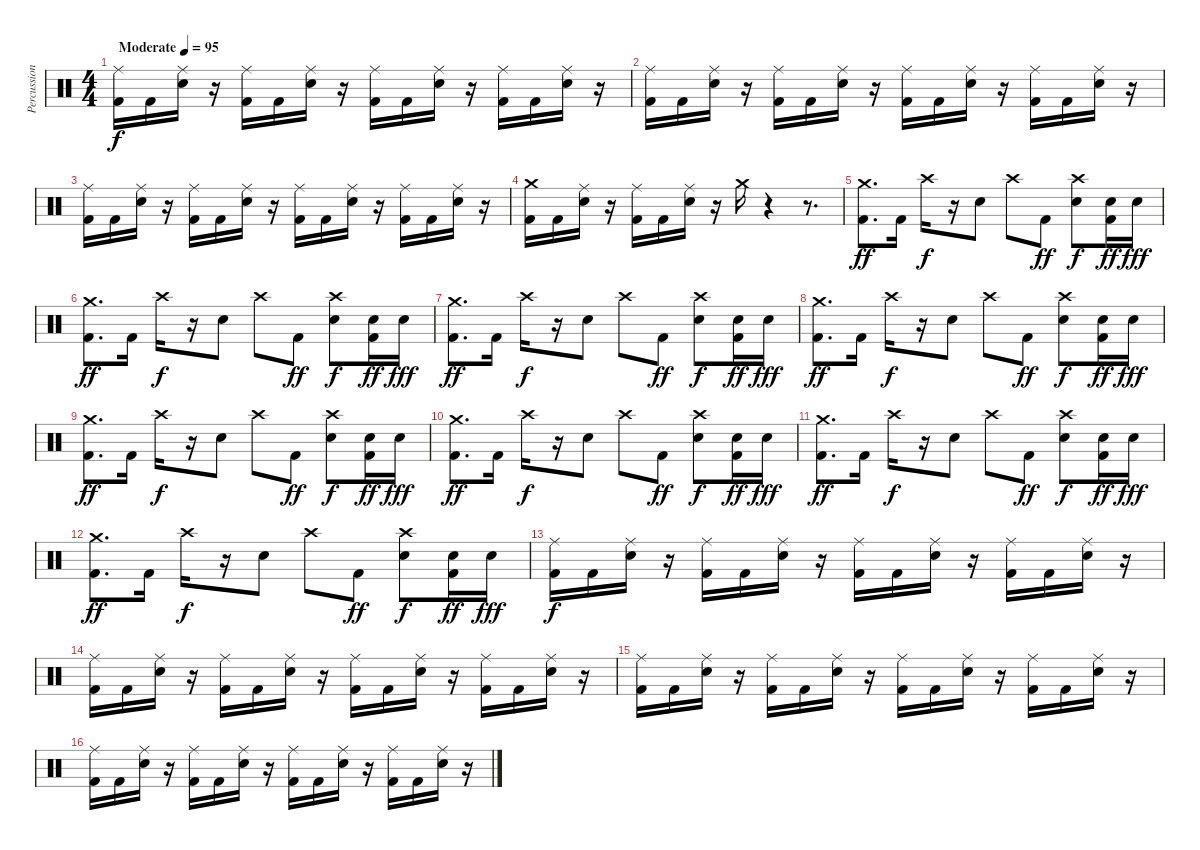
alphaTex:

\track ("Percussion" "Percussion") {instrument percussion}
\staff {score}
\articulation defaults
\ts (4 4)
\tempo (95 "Moderate")
\clef neutral
\ks c
("Ride (middle)" "Kick (hit) 2").16{dy f} "Kick (hit) 2".16 ("Ride (middle)" "Electric Snare (hit)").16 r.16 ("Ride (middle)" "Kick (hit) 2").16 "Kick (hit) 2".16 ("Ride (middle)" "Electric Snare (hit)").16 r.16 ("Ride (middle)" "Kick (hit) 2").16 "Kick (hit) 2".16 ("Ride (middle)" "Electric Snare (hit)").16 r.16 ("Ride (middle)" "Kick (hit) 2").16 "Kick (hit) 2".16 ("Ride (middle)" "Electric Snare (hit)").16 r.16 |
("Ride (middle)" "Kick (hit) 2").16 "Kick (hit) 2".16 ("Ride (middle)" "Electric Snare (hit)").16 r.16 ("Ride (middle)" "Kick (hit) 2").16 "Kick (hit) 2".16 ("Ride (middle)" "Electric Snare (hit)").16 r.16 ("Ride (middle)" "Kick (hit) 2").16 "Kick (hit) 2".16 ("Ride (middle)" "Electric Snare (hit)").16 r.16 ("Ride (middle)" "Kick (hit) 2").16 "Kick (hit) 2".16 ("Ride (middle)" "Electric Snare (hit)").16 r.16 |
("Ride (middle)" "Kick (hit) 2").16 "Kick (hit) 2".16 ("Ride (middle)" "Electric Snare (hit)").16 r.16 ("Ride (middle)" "Kick (hit) 2").16 "Kick (hit) 2".16 ("Ride (middle)" "Electric Snare (hit)").16 r.16 ("Ride (middle)" "Kick (hit) 2").16 "Kick (hit) 2".16 ("Ride (middle)" "Electric Snare (hit)").16 r.16 ("Ride (middle)" "Kick (hit) 2").16 "Kick (hit) 2".16 ("Ride (middle)" "Electric Snare (hit)").16 r.16 |
("Crash medium (hit)" "Kick (hit) 2").16 "Kick (hit) 2".16 ("Ride (middle)" "Electric Snare (hit)").16 r.16 ("Ride (middle)" "Kick (hit) 2").16 "Kick (hit) 2".16 ("Ride (middle)" "Electric Snare (hit)").16 r.16 "Crash medium (hit)".16 r.4 r.8{d} |
("Crash medium (hit)" "Kick (hit) 2").8{d dy ff} "Kick (hit) 2".16 "Crash high (hit)".16{dy f} r.16 "Electric Snare (hit)".8 "Crash high (hit)".8 "Kick (hit) 2".8{dy ff} ("Crash high (hit)" "Electric Snare (hit)").8{dy f} ("Electric Snare (hit)" "Kick (hit) 2").16{dy ff} "Electric Snare (hit)".16{dy fff} |
("Crash medium (hit)" "Kick (hit) 2").8{d dy ff} "Kick (hit) 2".16 "Crash high (hit)".16{dy f} r.16 "Electric Snare (hit)".8 "Crash high (hit)".8 "Kick (hit) 2".8{dy ff} ("Crash high (hit)" "Electric Snare (hit)").8{dy f} ("Electric Snare (hit)" "Kick (hit) 2").16{dy ff} "Electric Snare (hit)".16{dy fff} |
("Crash medium (hit)" "Kick (hit) 2").8{d dy ff} "Kick (hit) 2".16 "Crash high (hit)".16{dy f} r.16 "Electric Snare (hit)".8 "Crash high (hit)".8 "Kick (hit) 2".8{dy ff} ("Crash high (hit)" "Electric Snare (hit)").8{dy f} ("Electric Snare (hit)" "Kick (hit) 2").16{dy ff} "Electric Snare (hit)".16{dy fff} |
("Crash medium (hit)" "Kick (hit) 2").8{d dy ff} "Kick (hit) 2".16 "Crash high (hit)".16{dy f} r.16 "Electric Snare (hit)".8 "Crash high (hit)".8 "Kick (hit) 2".8{dy ff} ("Crash high (hit)" "Electric Snare (hit)").8{dy f} ("Electric Snare (hit)" "Kick (hit) 2").16{dy ff} "Electric Snare (hit)".16{dy fff} |
("Crash medium (hit)" "Kick (hit) 2").8{d dy ff} "Kick (hit) 2".16 "Crash high (hit)".16{dy f} r.16 "Electric Snare (hit)".8 "Crash high (hit)".8 "Kick (hit) 2".8{dy ff} ("Crash high (hit)" "Electric Snare (hit)").8{dy f} ("Electric Snare (hit)" "Kick (hit) 2").16{dy ff} "Electric Snare (hit)".16{dy fff} |
("Crash medium (hit)" "Kick (hit) 2").8{d dy ff} "Kick (hit) 2".16 "Crash high (hit)".16{dy f} r.16 "Electric Snare (hit)".8 "Crash high (hit)".8 "Kick (hit) 2".8{dy ff} ("Crash high (hit)" "Electric Snare (hit)").8{dy f} ("Electric Snare (hit)" "Kick (hit) 2").16{dy ff} "Electric Snare (hit)".16{dy fff} |
("Crash medium (hit)" "Kick (hit) 2").8{d dy ff} "Kick (hit) 2".16 "Crash high (hit)".16{dy f} r.16 "Electric Snare (hit)".8 "Crash high (hit)".8 "Kick (hit) 2".8{dy ff} ("Crash high (hit)" "Electric Snare (hit)").8{dy f} ("Electric Snare (hit)" "Kick (hit) 2").16{dy ff} "Electric Snare (hit)".16{dy fff} |
("Crash medium (hit)" "Kick (hit) 2").8{d dy ff} "Kick (hit) 2".16 "Crash high (hit)".16{dy f} r.16 "Electric Snare (hit)".8 "Crash high (hit)".8 "Kick (hit) 2".8{dy ff} ("Crash high (hit)" "Electric Snare (hit)").8{dy f} ("Electric Snare (hit)" "Kick (hit) 2").16{dy ff} "Electric Snare (hit)".16{dy fff} |
("Ride (middle)" "Kick (hit) 2").16{dy f} "Kick (hit) 2".16 ("Ride (middle)" "Electric Snare (hit)").16 r.16 ("Ride (middle)" "Kick (hit) 2").16 "Kick (hit) 2".16 ("Ride (middle)" "Electric Snare (hit)").16 r.16 ("Ride (middle)" "Kick (hit) 2").16 "Kick (hit) 2".16 ("Ride (middle)" "Electric Snare (hit)").16 r.16 ("Ride (middle)" "Kick (hit) 2").16 "Kick (hit) 2".16 ("Ride (middle)" "Electric Snare (hit)").16 r.16 |
("Ride (middle)" "Kick (hit) 2").16 "Kick (hit) 2".16 ("Ride (middle)" "Electric Snare (hit)").16 r.16 ("Ride (middle)" "Kick (hit) 2").16 "Kick (hit) 2".16 ("Ride (middle)" "Electric Snare (hit)").16 r.16 ("Ride (middle)" "Kick (hit) 2").16 "Kick (hit) 2".16 ("Ride (middle)" "Electric Snare (hit)").16 r.16 ("Ride (middle)" "Kick (hit) 2").16 "Kick (hit) 2".16 ("Ride (middle)" "Electric Snare (hit)").16 r.16 |
("Ride (middle)" "Kick (hit) 2").16 "Kick (hit) 2".16 ("Ride (middle)" "Electric Snare (hit)").16 r.16 ("Ride (middle)" "Kick (hit) 2").16 "Kick (hit) 2".16 ("Ride (middle)" "Electric Snare (hit)").16 r.16 ("Ride (middle)" "Kick (hit) 2").16 "Kick (hit) 2".16 ("Ride (middle)" "Electric Snare (hit)").16 r.16 ("Ride (middle)" "Kick (hit) 2").16 "Kick (hit) 2".16 ("Ride (middle)" "Electric Snare (hit)").16 r.16 |
("Ride (middle)" "Kick (hit) 2").16 "Kick (hit) 2".16 ("Ride (middle)" "Electric Snare (hit)").16 r.16 ("Ride (middle)" "Kick (hit) 2").16 "Kick (hit) 2".16 ("Ride (middle)" "Electric Snare (hit)").16 r.16 ("Ride (middle)" "Kick (hit) 2").16 "Kick (hit) 2".16 ("Ride (middle)" "Electric Snare (hit)").16 r.16 ("Ride (middle)" "Kick (hit) 2").16 "Kick (hit) 2".16 ("Ride (middle)" "Electric Snare (hit)").16 r.16
